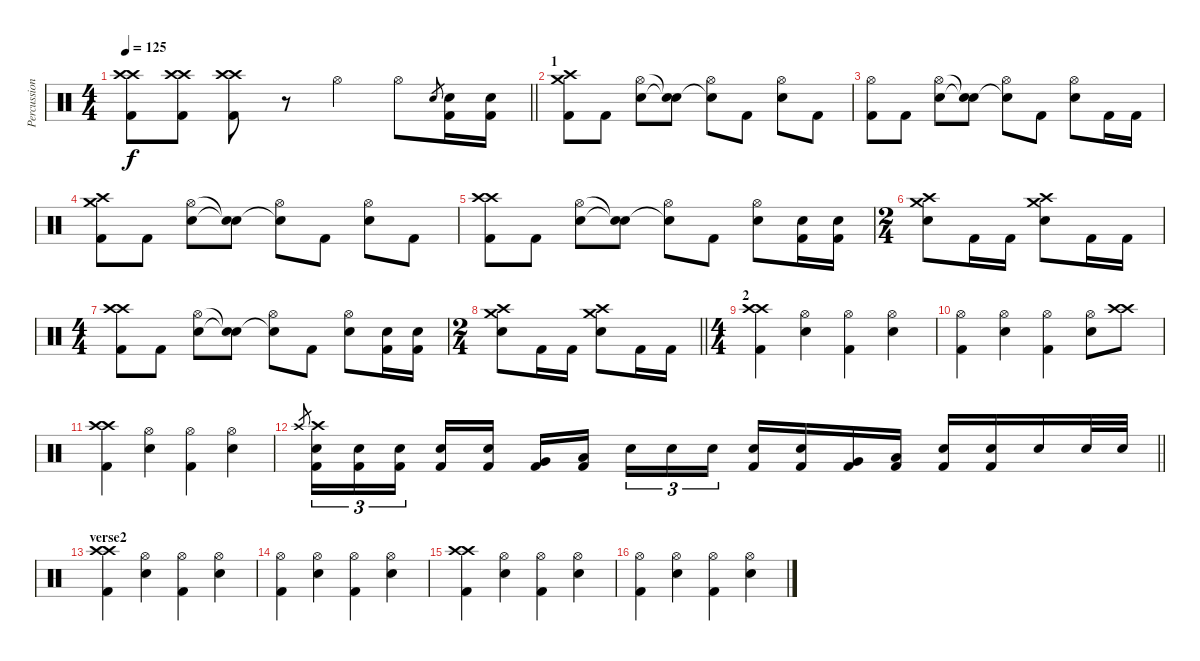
\track ("Percussion" "Percussion") {instrument percussion}
\staff {score}
\articulation defaults
\ts (4 4)
\tempo 125
\clef neutral
\barLineRight lightlight
\ks c
("Crash high (hit)" "Crash high (hit)" "Kick (hit) 2").8{dy f} ("Crash high (hit)" "Crash high (hit)" "Kick (hit) 2").8 ("Crash high (hit)" "Crash high (hit)" "Kick (hit) 2").8 r.8 "Hi-Hat (open)".4 "Hi-Hat (open)".8 "Snare (hit) 2".8{gr} ("Snare (hit) 2" "Kick (hit) 2").16 ("Snare (hit) 2" "Kick (hit) 2").16 |
\section ("" "1")
("Crash medium (hit)" "Crash high (hit)" "Kick (hit) 2").8 "Kick (hit) 2".8 ("Hi-Hat (open)" "Snare (hit) 2").8 ("Snare (hit)"{t} "Snare (hit)"{t}).8 ("Hi-Hat (open)" "Snare (hit)"{t}).8 "Kick (hit) 2".8 ("Hi-Hat (open)" "Snare (hit) 2").8 "Kick (hit) 2".8 |
("Hi-Hat (open)" "Kick (hit) 2").8 "Kick (hit) 2".8 ("Hi-Hat (open)" "Snare (hit) 2").8 ("Snare (hit)"{t} "Snare (hit)"{t}).8 ("Hi-Hat (open)" "Snare (hit)"{t}).8 "Kick (hit) 2".8 ("Hi-Hat (open)" "Snare (hit) 2").8 "Kick (hit) 2".16 "Kick (hit) 2".16 |
("Crash medium (hit)" "Crash high (hit)" "Kick (hit) 2").8 "Kick (hit) 2".8 ("Hi-Hat (open)" "Snare (hit) 2").8 ("Snare (hit)"{t} "Snare (hit)"{t}).8 ("Hi-Hat (open)" "Snare (hit)"{t}).8 "Kick (hit) 2".8 ("Hi-Hat (open)" "Snare (hit) 2").8 "Kick (hit) 2".8 |
("Crash high (hit)" "Crash high (hit)" "Kick (hit) 2").8 "Kick (hit) 2".8 ("Hi-Hat (open)" "Snare (hit) 2").8 ("Snare (hit)"{t} "Snare (hit)"{t}).8 ("Hi-Hat (open)" "Snare (hit)"{t}).8 "Kick (hit) 2".8 ("Hi-Hat (open)" "Snare (hit) 2").8 ("Snare (hit) 2" "Kick (hit) 2").16 ("Snare (hit) 2" "Kick (hit) 2").16 |
\ts (2 4)
("Crash medium (hit)" "Crash high (hit)" "Snare (hit) 2").8 "Kick (hit) 2".16 "Kick (hit) 2".16 ("Crash high (hit)" "Crash medium (hit)" "Snare (hit) 2").8 "Kick (hit) 2".16 "Kick (hit) 2".16 |
\ts (4 4)
("Crash high (hit)" "Crash high (hit)" "Kick (hit) 2").8 "Kick (hit) 2".8 ("Hi-Hat (open)" "Snare (hit) 2").8 ("Snare (hit)"{t} "Snare (hit)"{t}).8 ("Hi-Hat (open)" "Snare (hit)"{t}).8 "Kick (hit) 2".8 ("Hi-Hat (open)" "Snare (hit) 2").8 ("Snare (hit) 2" "Kick (hit) 2").16 ("Snare (hit) 2" "Kick (hit) 2").16 |
\ts (2 4)
\barLineRight lightlight
("Crash medium (hit)" "Crash high (hit)" "Snare (hit) 2").8 "Kick (hit) 2".16 "Kick (hit) 2".16 ("Crash high (hit)" "Crash medium (hit)" "Snare (hit) 2").8 "Kick (hit) 2".16 "Kick (hit) 2".16 |
\ts (4 4)
\section ("" "2")
("Crash high (hit)" "Crash high (hit)" "Kick (hit) 2").4 ("Hi-Hat (open)" "Snare (hit) 2").4 ("Hi-Hat (open)" "Kick (hit) 2").4 ("Hi-Hat (open)" "Snare (hit) 2").4 |
("Hi-Hat (open)" "Kick (hit) 2").4 ("Hi-Hat (open)" "Snare (hit) 2").4 ("Hi-Hat (open)" "Kick (hit) 2").4 ("Hi-Hat (open)" "Snare (hit) 2").8 ("Crash high (hit)" "Crash high (hit)").8 |
("Crash high (hit)" "Crash high (hit)" "Kick (hit) 2").4 ("Hi-Hat (open)" "Snare (hit) 2").4 ("Hi-Hat (open)" "Kick (hit) 2").4 ("Hi-Hat (open)" "Snare (hit) 2").4 |
\barLineRight lightlight "Crash high (hit)".8{gr}
("Crash high (hit)" "Snare (hit) 2" "Kick (hit) 2").16{tu (3 2)} ("Snare (hit) 2" "Kick (hit) 2").16{tu (3 2)} ("Snare (hit) 2" "Kick (hit) 2").16{tu (3 2) beam splitsecondary} ("Kick (hit) 2" "Snare (hit) 2").16 ("Kick (hit) 2" "Snare (hit) 2").16 ("Kick (hit) 2" "Very Low Tom (hit)").16 ("Kick (hit) 2" "Low Floor Tom (hit)").16{beam splitsecondary} "Snare (hit) 2".16{tu (3 2)} "Snare (hit) 2".16{tu (3 2)} "Snare (hit) 2".16{tu (3 2)} ("Kick (hit) 2" "Snare (hit) 2").16 ("Kick (hit) 2" "Snare (hit) 2").16 ("Kick (hit) 2" "Very Low Tom (hit)").16 ("Kick (hit) 2" "Low Floor Tom (hit)").16 ("Kick (hit) 2" "Snare (hit) 2").16 ("Kick (hit) 2" "Snare (hit) 2").16 "Snare (hit) 2".16 "Snare (hit) 2".32 "Snare (hit) 2".32 |
\section ("" "verse2")
("Crash high (hit)" "Crash high (hit)" "Kick (hit) 2").4 ("Hi-Hat (open)" "Snare (hit) 2").4 ("Hi-Hat (open)" "Kick (hit) 2").4 ("Hi-Hat (open)" "Snare (hit) 2").4 |
("Hi-Hat (open)" "Kick (hit) 2").4 ("Hi-Hat (open)" "Snare (hit) 2").4 ("Hi-Hat (open)" "Kick (hit) 2").4 ("Hi-Hat (open)" "Snare (hit) 2").4 |
("Crash high (hit)" "Crash high (hit)" "Kick (hit) 2").4 ("Hi-Hat (open)" "Snare (hit) 2").4 ("Hi-Hat (open)" "Kick (hit) 2").4 ("Hi-Hat (open)" "Snare (hit) 2").4 |
("Hi-Hat (open)" "Kick (hit) 2").4 ("Hi-Hat (open)" "Snare (hit) 2").4 ("Hi-Hat (open)" "Kick (hit) 2").4 ("Hi-Hat (open)" "Snare (hit) 2").4
